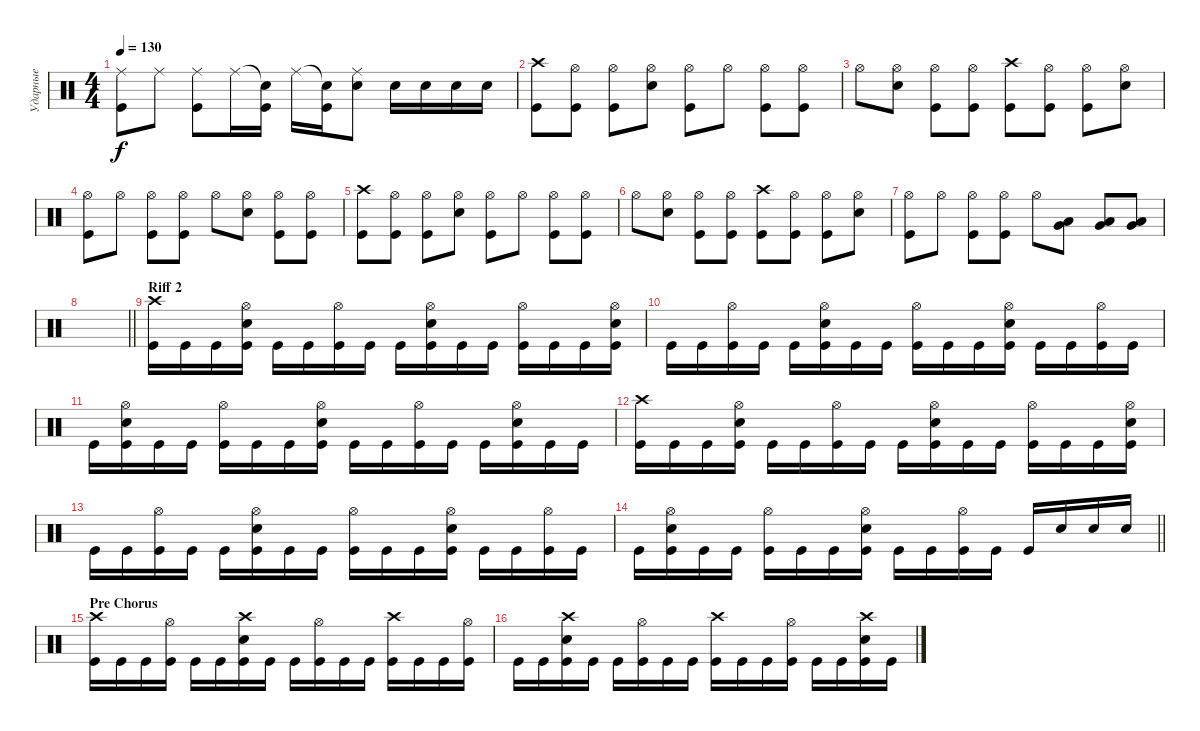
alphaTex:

\track ("Ударные" "Ударные") {instrument percussion}
\staff {score}
\articulation defaults
\ts (4 4)
\tempo 130
\clef neutral
\ks c
("Ride (middle)" "Kick (hit)").8{dy f} "Ride (middle)".8 ("Ride (middle)" "Kick (hit)").8 "Ride (middle)".16 ("Snare (hit)"{t} "Kick (hit)").16 "Ride (middle)".16 ("Snare (hit)"{t} "Kick (hit)").16 ("Ride (middle)" "Snare (hit) 2").8 "Snare (hit) 2".16 "Snare (hit) 2".16 "Snare (hit) 2".16 "Snare (hit) 2".16 |
("Crash high (hit)" "Kick (hit)").8 ("Hi-Hat (open)" "Kick (hit)").8 ("Hi-Hat (open)" "Kick (hit)").8 ("Snare (hit) 2" "Hi-Hat (open)").8 ("Hi-Hat (open)" "Kick (hit)").8 "Hi-Hat (open)".8 ("Hi-Hat (open)" "Kick (hit)").8 ("Hi-Hat (open)" "Kick (hit)").8 |
"Hi-Hat (open)".8 ("Snare (hit) 2" "Hi-Hat (open)").8 ("Hi-Hat (open)" "Kick (hit)").8 ("Hi-Hat (open)" "Kick (hit)").8 ("Crash high (hit)" "Kick (hit)").8 ("Hi-Hat (open)" "Kick (hit)").8 ("Hi-Hat (open)" "Kick (hit)").8 ("Snare (hit) 2" "Hi-Hat (open)").8 |
("Hi-Hat (open)" "Kick (hit)").8 "Hi-Hat (open)".8 ("Hi-Hat (open)" "Kick (hit)").8 ("Hi-Hat (open)" "Kick (hit)").8 "Hi-Hat (open)".8 ("Snare (hit) 2" "Hi-Hat (open)").8 ("Hi-Hat (open)" "Kick (hit)").8 ("Hi-Hat (open)" "Kick (hit)").8 |
("Crash high (hit)" "Kick (hit)").8 ("Hi-Hat (open)" "Kick (hit)").8 ("Hi-Hat (open)" "Kick (hit)").8 ("Snare (hit) 2" "Hi-Hat (open)").8 ("Hi-Hat (open)" "Kick (hit)").8 "Hi-Hat (open)".8 ("Hi-Hat (open)" "Kick (hit)").8 ("Hi-Hat (open)" "Kick (hit)").8 |
"Hi-Hat (open)".8 ("Snare (hit) 2" "Hi-Hat (open)").8 ("Hi-Hat (open)" "Kick (hit)").8 ("Hi-Hat (open)" "Kick (hit)").8 ("Crash high (hit)" "Kick (hit)").8 ("Hi-Hat (open)" "Kick (hit)").8 ("Hi-Hat (open)" "Kick (hit)").8 ("Snare (hit) 2" "Hi-Hat (open)").8 |
("Hi-Hat (open)" "Kick (hit)").8 "Hi-Hat (open)".8 ("Hi-Hat (open)" "Kick (hit)").8 ("Hi-Hat (open)" "Kick (hit)").8 "Hi-Hat (open)".8 ("Very Low Tom (hit)" "Low Tom (hit)").8 ("Very Low Tom (hit)" "Low Tom (hit)").8 ("Very Low Tom (hit)" "Low Tom (hit)").8 |
\barLineRight lightlight
|
\section ("" "Riff 2")
("Crash high (hit)" "Kick (hit)").16 "Kick (hit)".16 "Kick (hit)".16 ("Hi-Hat (open)" "Snare (hit) 2" "Kick (hit)").16 "Kick (hit)".16 "Kick (hit)".16 ("Hi-Hat (open)" "Kick (hit)").16 "Kick (hit)".16 "Kick (hit)".16 ("Snare (hit) 2" "Hi-Hat (open)" "Kick (hit)").16 "Kick (hit)".16 "Kick (hit)".16 ("Hi-Hat (open)" "Kick (hit)").16 "Kick (hit)".16 "Kick (hit)".16 ("Snare (hit) 2" "Hi-Hat (open)" "Kick (hit)").16 |
"Kick (hit)".16 "Kick (hit)".16 ("Hi-Hat (open)" "Kick (hit)").16 "Kick (hit)".16 "Kick (hit)".16 ("Snare (hit) 2" "Hi-Hat (open)" "Kick (hit)").16 "Kick (hit)".16 "Kick (hit)".16 ("Hi-Hat (open)" "Kick (hit)").16 "Kick (hit)".16 "Kick (hit)".16 ("Hi-Hat (open)" "Snare (hit) 2" "Kick (hit)").16 "Kick (hit)".16 "Kick (hit)".16 ("Hi-Hat (open)" "Kick (hit)").16 "Kick (hit)".16 |
"Kick (hit)".16 ("Snare (hit) 2" "Hi-Hat (open)" "Kick (hit)").16 "Kick (hit)".16 "Kick (hit)".16 ("Hi-Hat (open)" "Kick (hit)").16 "Kick (hit)".16 "Kick (hit)".16 ("Snare (hit) 2" "Hi-Hat (open)" "Kick (hit)").16 "Kick (hit)".16 "Kick (hit)".16 ("Hi-Hat (open)" "Kick (hit)").16 "Kick (hit)".16 "Kick (hit)".16 ("Snare (hit) 2" "Hi-Hat (open)" "Kick (hit)").16 "Kick (hit)".16 "Kick (hit)".16 |
("Crash high (hit)" "Kick (hit)").16 "Kick (hit)".16 "Kick (hit)".16 ("Hi-Hat (open)" "Snare (hit) 2" "Kick (hit)").16 "Kick (hit)".16 "Kick (hit)".16 ("Hi-Hat (open)" "Kick (hit)").16 "Kick (hit)".16 "Kick (hit)".16 ("Snare (hit) 2" "Hi-Hat (open)" "Kick (hit)").16 "Kick (hit)".16 "Kick (hit)".16 ("Hi-Hat (open)" "Kick (hit)").16 "Kick (hit)".16 "Kick (hit)".16 ("Snare (hit) 2" "Hi-Hat (open)" "Kick (hit)").16 |
"Kick (hit)".16 "Kick (hit)".16 ("Hi-Hat (open)" "Kick (hit)").16 "Kick (hit)".16 "Kick (hit)".16 ("Snare (hit) 2" "Hi-Hat (open)" "Kick (hit)").16 "Kick (hit)".16 "Kick (hit)".16 ("Hi-Hat (open)" "Kick (hit)").16 "Kick (hit)".16 "Kick (hit)".16 ("Hi-Hat (open)" "Snare (hit) 2" "Kick (hit)").16 "Kick (hit)".16 "Kick (hit)".16 ("Hi-Hat (open)" "Kick (hit)").16 "Kick (hit)".16 |
\barLineRight lightlight "Kick (hit)".16
("Snare (hit) 2" "Hi-Hat (open)" "Kick (hit)").16 "Kick (hit)".16 "Kick (hit)".16 ("Hi-Hat (open)" "Kick (hit)").16 "Kick (hit)".16 "Kick (hit)".16 ("Snare (hit) 2" "Hi-Hat (open)" "Kick (hit)").16 "Kick (hit)".16 "Kick (hit)".16 ("Hi-Hat (open)" "Kick (hit)").16 "Kick (hit)".16 "Kick (hit)".16 "Snare (hit) 2".16 "Snare (hit) 2".16 "Snare (hit) 2".16 |
\section ("" "Pre Chorus")
("Crash high (hit)" "Kick (hit)").16 "Kick (hit)".16 "Kick (hit)".16 ("Hi-Hat (open)" "Kick (hit)").16 "Kick (hit)".16 "Kick (hit)".16 ("Crash high (hit)" "Snare (hit) 2" "Kick (hit)").16 "Kick (hit)".16 "Kick (hit)".16 ("Hi-Hat (open)" "Kick (hit)").16 "Kick (hit)".16 "Kick (hit)".16 ("Crash high (hit)" "Kick (hit)").16 "Kick (hit)".16 "Kick (hit)".16 ("Hi-Hat (open)" "Kick (hit)").16 |
"Kick (hit)".16 "Kick (hit)".16 ("Crash high (hit)" "Snare (hit) 2" "Kick (hit)").16 "Kick (hit)".16 "Kick (hit)".16 ("Hi-Hat (open)" "Kick (hit)").16 "Kick (hit)".16 "Kick (hit)".16 ("Crash high (hit)" "Kick (hit)").16 "Kick (hit)".16 "Kick (hit)".16 ("Hi-Hat (open)" "Kick (hit)").16 "Kick (hit)".16 "Kick (hit)".16 ("Crash high (hit)" "Snare (hit) 2" "Kick (hit)").16 "Kick (hit)".16
